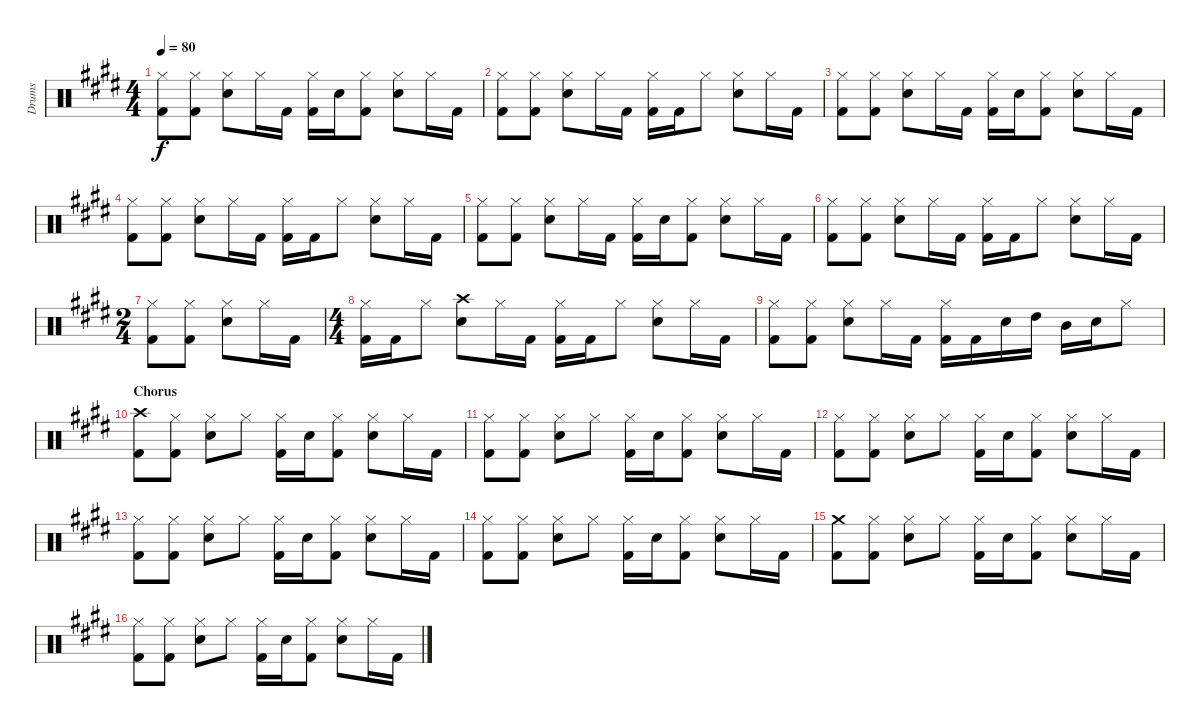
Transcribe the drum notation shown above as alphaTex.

\track ("Drums" "Drums") {instrument percussion}
\staff {score}
\articulation defaults
\ts (4 4)
\tempo 80
\clef neutral
\ks c#minor
("Kick (hit) 2" "Hi-Hat (closed)").8{dy f} ("Kick (hit) 2" "Hi-Hat (closed)").8 ("Snare (hit) 2" "Hi-Hat (closed)").8 "Hi-Hat (closed)".16 "Kick (hit) 2".16 ("Kick (hit) 2" "Hi-Hat (closed)").16 "Snare (hit) 2".16 ("Kick (hit) 2" "Hi-Hat (closed)").8 ("Snare (hit) 2" "Hi-Hat (closed)").8 "Hi-Hat (closed)".16 "Kick (hit) 2".16 |
("Kick (hit) 2" "Hi-Hat (closed)").8 ("Kick (hit) 2" "Hi-Hat (closed)").8 ("Snare (hit) 2" "Hi-Hat (closed)").8 "Hi-Hat (closed)".16 "Kick (hit) 2".16 ("Kick (hit) 2" "Hi-Hat (closed)").16 "Kick (hit) 2".16 "Hi-Hat (closed)".8 ("Snare (hit) 2" "Hi-Hat (closed)").8 "Hi-Hat (closed)".16 "Kick (hit) 2".16 |
("Kick (hit) 2" "Hi-Hat (closed)").8 ("Kick (hit) 2" "Hi-Hat (closed)").8 ("Snare (hit) 2" "Hi-Hat (closed)").8 "Hi-Hat (closed)".16 "Kick (hit) 2".16 ("Kick (hit) 2" "Hi-Hat (closed)").16 "Snare (hit) 2".16 ("Kick (hit) 2" "Hi-Hat (closed)").8 ("Snare (hit) 2" "Hi-Hat (closed)").8 "Hi-Hat (closed)".16 "Kick (hit) 2".16 |
("Kick (hit) 2" "Hi-Hat (closed)").8 ("Kick (hit) 2" "Hi-Hat (closed)").8 ("Snare (hit) 2" "Hi-Hat (closed)").8 "Hi-Hat (closed)".16 "Kick (hit) 2".16 ("Kick (hit) 2" "Hi-Hat (closed)").16 "Kick (hit) 2".16 "Hi-Hat (closed)".8 ("Snare (hit) 2" "Hi-Hat (closed)").8 "Hi-Hat (closed)".16 "Kick (hit) 2".16 |
("Kick (hit) 2" "Hi-Hat (closed)").8 ("Kick (hit) 2" "Hi-Hat (closed)").8 ("Snare (hit) 2" "Hi-Hat (closed)").8 "Hi-Hat (closed)".16 "Kick (hit) 2".16 ("Kick (hit) 2" "Hi-Hat (closed)").16 "Snare (hit) 2".16 ("Kick (hit) 2" "Hi-Hat (closed)").8 ("Snare (hit) 2" "Hi-Hat (closed)").8 "Hi-Hat (closed)".16 "Kick (hit) 2".16 |
("Kick (hit) 2" "Hi-Hat (closed)").8 ("Kick (hit) 2" "Hi-Hat (closed)").8 ("Snare (hit) 2" "Hi-Hat (closed)").8 "Hi-Hat (closed)".16 "Kick (hit) 2".16 ("Kick (hit) 2" "Hi-Hat (closed)").16 "Kick (hit) 2".16 "Hi-Hat (closed)".8 ("Snare (hit) 2" "Hi-Hat (closed)").8 "Hi-Hat (closed)".16 "Kick (hit) 2".16 |
\ts (2 4)
("Kick (hit) 2" "Hi-Hat (closed)").8 ("Kick (hit) 2" "Hi-Hat (closed)").8 ("Snare (hit) 2" "Hi-Hat (closed)").8 "Hi-Hat (closed)".16 "Kick (hit) 2".16 |
\ts (4 4)
("Kick (hit) 2" "Hi-Hat (closed)").16 "Kick (hit) 2".16 "Hi-Hat (closed)".8 ("Snare (hit) 2" "Crash high (hit)").8 "Hi-Hat (closed)".16 "Kick (hit) 2".16 ("Kick (hit) 2" "Hi-Hat (closed)").16 "Kick (hit) 2".16 "Hi-Hat (closed)".8 ("Snare (hit) 2" "Hi-Hat (closed)").8 "Hi-Hat (closed)".16 "Kick (hit) 2".16 |
("Kick (hit) 2" "Hi-Hat (closed)").8 ("Kick (hit) 2" "Hi-Hat (closed)").8 ("Snare (hit) 2" "Hi-Hat (closed)").8 "Hi-Hat (closed)".16 "Kick (hit) 2".16 ("Kick (hit) 2" "Hi-Hat (closed)").16 "Kick (hit) 2".16 "Snare (hit) 2".16 "High Tom (hit)".16 "Mid Tom (hit)".16 "Snare (hit)".16 "Hi-Hat (closed)".8 |
\section ("" "Chorus")
("Kick (hit) 2" "Crash high (hit)").8 ("Kick (hit) 2" "Hi-Hat (closed)").8 ("Snare (hit) 2" "Hi-Hat (closed)").8 "Hi-Hat (closed)".8 ("Kick (hit) 2" "Hi-Hat (closed)").16 "Snare (hit) 2".16 ("Kick (hit) 2" "Hi-Hat (closed)").8 ("Snare (hit) 2" "Hi-Hat (closed)").8 "Hi-Hat (closed)".16 "Kick (hit) 2".16 |
("Kick (hit) 2" "Hi-Hat (closed)").8 ("Kick (hit) 2" "Hi-Hat (closed)").8 ("Snare (hit) 2" "Hi-Hat (closed)").8 "Hi-Hat (closed)".8 ("Kick (hit) 2" "Hi-Hat (closed)").16 "Snare (hit) 2".16 ("Kick (hit) 2" "Hi-Hat (closed)").8 ("Snare (hit) 2" "Hi-Hat (closed)").8 "Hi-Hat (closed)".16 "Kick (hit) 2".16 |
("Kick (hit) 2" "Hi-Hat (closed)").8 ("Kick (hit) 2" "Hi-Hat (closed)").8 ("Snare (hit) 2" "Hi-Hat (closed)").8 "Hi-Hat (closed)".8 ("Kick (hit) 2" "Hi-Hat (closed)").16 "Snare (hit) 2".16 ("Kick (hit) 2" "Hi-Hat (closed)").8 ("Snare (hit) 2" "Hi-Hat (closed)").8 "Hi-Hat (closed)".16 "Kick (hit) 2".16 |
("Kick (hit) 2" "Hi-Hat (closed)").8 ("Kick (hit) 2" "Hi-Hat (closed)").8 ("Snare (hit) 2" "Hi-Hat (closed)").8 "Hi-Hat (closed)".8 ("Kick (hit) 2" "Hi-Hat (closed)").16 "Snare (hit) 2".16 ("Kick (hit) 2" "Hi-Hat (closed)").8 ("Snare (hit) 2" "Hi-Hat (closed)").8 "Hi-Hat (closed)".16 "Kick (hit) 2".16 |
("Kick (hit) 2" "Hi-Hat (closed)").8 ("Kick (hit) 2" "Hi-Hat (closed)").8 ("Snare (hit) 2" "Hi-Hat (closed)").8 "Hi-Hat (closed)".8 ("Kick (hit) 2" "Hi-Hat (closed)").16 "Snare (hit) 2".16 ("Kick (hit) 2" "Hi-Hat (closed)").8 ("Snare (hit) 2" "Hi-Hat (closed)").8 "Hi-Hat (closed)".16 "Kick (hit) 2".16 |
("Kick (hit) 2" "Crash medium (hit)").8 ("Kick (hit) 2" "Hi-Hat (closed)").8 ("Snare (hit) 2" "Hi-Hat (closed)").8 "Hi-Hat (closed)".8 ("Kick (hit) 2" "Hi-Hat (closed)").16 "Snare (hit) 2".16 ("Kick (hit) 2" "Hi-Hat (closed)").8 ("Snare (hit) 2" "Hi-Hat (closed)").8 "Hi-Hat (closed)".16 "Kick (hit) 2".16 |
("Kick (hit) 2" "Hi-Hat (closed)").8 ("Kick (hit) 2" "Hi-Hat (closed)").8 ("Snare (hit) 2" "Hi-Hat (closed)").8 "Hi-Hat (closed)".8 ("Kick (hit) 2" "Hi-Hat (closed)").16 "Snare (hit) 2".16 ("Kick (hit) 2" "Hi-Hat (closed)").8 ("Snare (hit) 2" "Hi-Hat (closed)").8 "Hi-Hat (closed)".16 "Kick (hit) 2".16
